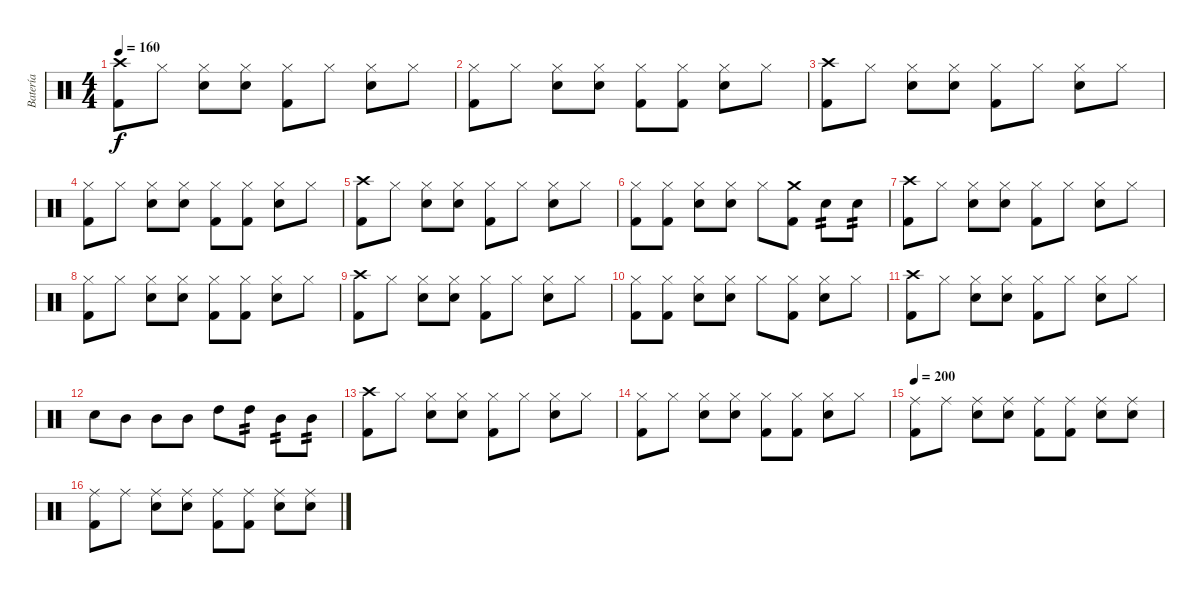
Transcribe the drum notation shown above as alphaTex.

\track ("Batería" "Batería") {instrument percussion}
\staff {score}
\articulation defaults
\ts (4 4)
\tempo 160
\clef neutral
\ks c
("Crash high (hit)" "Kick (hit) 2").8{dy f} "Hi-Hat (closed)".8 ("Hi-Hat (closed)" "Electric Snare (hit)").8 ("Hi-Hat (closed)" "Electric Snare (hit)").8 ("Hi-Hat (closed)" "Kick (hit) 2").8 "Hi-Hat (closed)".8 ("Hi-Hat (closed)" "Electric Snare (hit)").8 "Hi-Hat (closed)".8 |
("Hi-Hat (closed)" "Kick (hit) 2").8 "Hi-Hat (closed)".8 ("Hi-Hat (closed)" "Electric Snare (hit)").8 ("Hi-Hat (closed)" "Electric Snare (hit)").8 ("Hi-Hat (closed)" "Kick (hit) 2").8 ("Hi-Hat (closed)" "Kick (hit) 2").8 ("Hi-Hat (closed)" "Electric Snare (hit)").8 "Hi-Hat (closed)".8 |
("Crash high (hit)" "Kick (hit) 2").8 "Hi-Hat (closed)".8 ("Hi-Hat (closed)" "Electric Snare (hit)").8 ("Hi-Hat (closed)" "Electric Snare (hit)").8 ("Hi-Hat (closed)" "Kick (hit) 2").8 "Hi-Hat (closed)".8 ("Hi-Hat (closed)" "Electric Snare (hit)").8 "Hi-Hat (closed)".8 |
("Hi-Hat (closed)" "Kick (hit) 2").8 "Hi-Hat (closed)".8 ("Hi-Hat (closed)" "Electric Snare (hit)").8 ("Hi-Hat (closed)" "Electric Snare (hit)").8 ("Hi-Hat (closed)" "Kick (hit) 2").8 ("Hi-Hat (closed)" "Kick (hit) 2").8 ("Hi-Hat (closed)" "Electric Snare (hit)").8 "Hi-Hat (closed)".8 |
("Crash high (hit)" "Kick (hit) 2").8 "Hi-Hat (closed)".8 ("Hi-Hat (closed)" "Electric Snare (hit)").8 ("Hi-Hat (closed)" "Electric Snare (hit)").8 ("Hi-Hat (closed)" "Kick (hit) 2").8 "Hi-Hat (closed)".8 ("Hi-Hat (closed)" "Electric Snare (hit)").8 "Hi-Hat (closed)".8 |
("Hi-Hat (closed)" "Kick (hit) 2").8 ("Hi-Hat (closed)" "Kick (hit) 2").8 ("Hi-Hat (closed)" "Electric Snare (hit)").8 ("Hi-Hat (closed)" "Electric Snare (hit)").8 "Hi-Hat (closed)".8 ("Crash medium (hit)" "Kick (hit) 2").8 "Electric Snare (hit)".8{tp 2} "Electric Snare (hit)".8{tp 2} |
("Crash high (hit)" "Kick (hit) 2").8 "Hi-Hat (closed)".8 ("Hi-Hat (closed)" "Electric Snare (hit)").8 ("Hi-Hat (closed)" "Electric Snare (hit)").8 ("Hi-Hat (closed)" "Kick (hit) 2").8 "Hi-Hat (closed)".8 ("Hi-Hat (closed)" "Electric Snare (hit)").8 "Hi-Hat (closed)".8 |
("Hi-Hat (closed)" "Kick (hit) 2").8 "Hi-Hat (closed)".8 ("Hi-Hat (closed)" "Electric Snare (hit)").8 ("Hi-Hat (closed)" "Electric Snare (hit)").8 ("Hi-Hat (closed)" "Kick (hit) 2").8 ("Hi-Hat (closed)" "Kick (hit) 2").8 ("Hi-Hat (closed)" "Electric Snare (hit)").8 "Hi-Hat (closed)".8 |
("Crash high (hit)" "Kick (hit) 2").8 "Hi-Hat (closed)".8 ("Hi-Hat (closed)" "Electric Snare (hit)").8 ("Hi-Hat (closed)" "Electric Snare (hit)").8 ("Hi-Hat (closed)" "Kick (hit) 2").8 "Hi-Hat (closed)".8 ("Hi-Hat (closed)" "Electric Snare (hit)").8 "Hi-Hat (closed)".8 |
("Hi-Hat (closed)" "Kick (hit) 2").8 ("Hi-Hat (closed)" "Kick (hit) 2").8 ("Hi-Hat (closed)" "Electric Snare (hit)").8 ("Hi-Hat (closed)" "Electric Snare (hit)").8 "Hi-Hat (closed)".8 ("Hi-Hat (closed)" "Kick (hit) 2").8 ("Hi-Hat (closed)" "Electric Snare (hit)").8 "Hi-Hat (closed)".8 |
("Crash high (hit)" "Kick (hit) 2").8 "Hi-Hat (closed)".8 ("Hi-Hat (closed)" "Electric Snare (hit)").8 ("Hi-Hat (closed)" "Electric Snare (hit)").8 ("Hi-Hat (closed)" "Kick (hit) 2").8 "Hi-Hat (closed)".8 ("Hi-Hat (closed)" "Electric Snare (hit)").8 "Hi-Hat (closed)".8 |
"Electric Snare (hit)".8 "Mid Tom (hit)".8 "Mid Tom (hit)".8 "Mid Tom (hit)".8 "High Tom (hit)".8 "High Tom (hit)".8{tp 2} "Mid Tom (hit)".8{tp 2} "Mid Tom (hit)".8{tp 2} |
("Crash high (hit)" "Kick (hit) 2").8 "Hi-Hat (closed)".8 ("Hi-Hat (closed)" "Electric Snare (hit)").8 ("Hi-Hat (closed)" "Electric Snare (hit)").8 ("Hi-Hat (closed)" "Kick (hit) 2").8 "Hi-Hat (closed)".8 ("Hi-Hat (closed)" "Electric Snare (hit)").8 "Hi-Hat (closed)".8 |
("Hi-Hat (closed)" "Kick (hit) 2").8 "Hi-Hat (closed)".8 ("Hi-Hat (closed)" "Electric Snare (hit)").8 ("Hi-Hat (closed)" "Electric Snare (hit)").8 ("Hi-Hat (closed)" "Kick (hit) 2").8 ("Hi-Hat (closed)" "Kick (hit) 2").8 ("Hi-Hat (closed)" "Electric Snare (hit)").8 "Hi-Hat (closed)".8 |
\tempo 200
("Ride (middle)" "Kick (hit) 2").8 "Ride (middle)".8 ("Ride (middle)" "Electric Snare (hit)").8 ("Ride (middle)" "Electric Snare (hit)").8 ("Ride (middle)" "Kick (hit) 2").8 ("Ride (middle)" "Kick (hit) 2").8 ("Ride (middle)" "Electric Snare (hit)").8 ("Ride (middle)" "Electric Snare (hit)").8 |
("Ride (middle)" "Kick (hit) 2").8 "Ride (middle)".8 ("Ride (middle)" "Electric Snare (hit)").8 ("Ride (middle)" "Electric Snare (hit)").8 ("Ride (middle)" "Kick (hit) 2").8 ("Ride (middle)" "Kick (hit) 2").8 ("Ride (middle)" "Electric Snare (hit)").8 ("Ride (middle)" "Electric Snare (hit)").8
